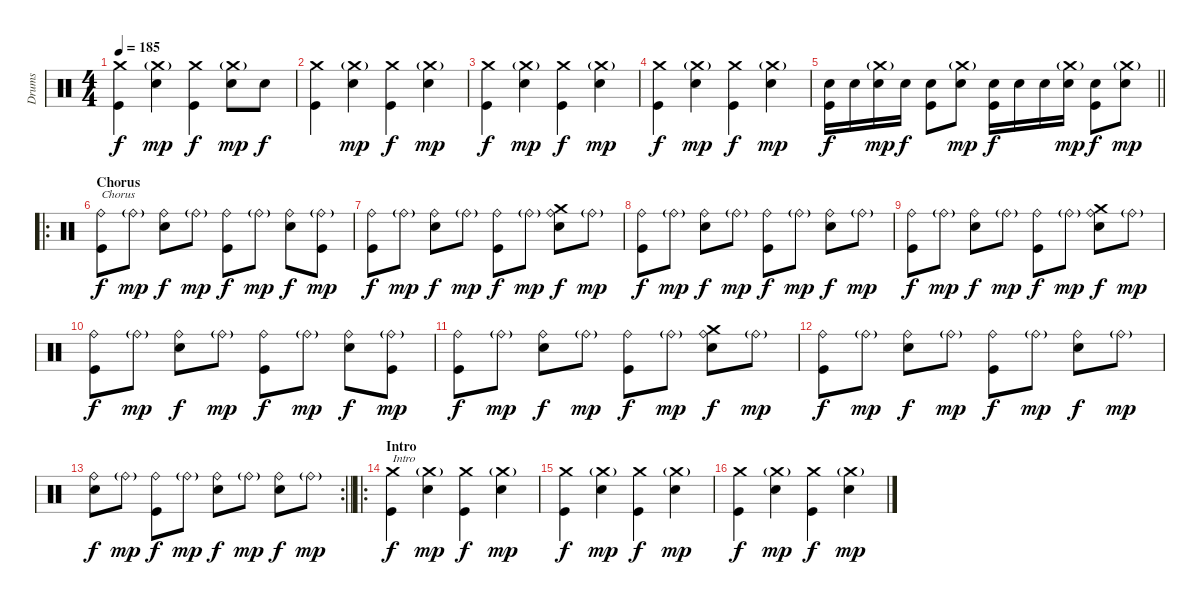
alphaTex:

\track ("Drums" "Drums") {instrument percussion}
\staff {score}
\articulation defaults
\ts (4 4)
\tempo 185
\clef neutral
\ks c
("Crash medium (hit)" "Kick (hit)").4{dy f} ("Crash medium (hit)"{g} "Snare (hit) 2").4{dy mp} ("Crash medium (hit)" "Kick (hit)").4{dy f} ("Crash medium (hit)"{g} "Electric Snare (hit)").8{dy mp} "Snare (hit) 2".8{dy f} |
("Crash medium (hit)" "Kick (hit)").4 ("Crash medium (hit)"{g} "Snare (hit) 2").4{dy mp} ("Crash medium (hit)" "Kick (hit)").4{dy f} ("Crash medium (hit)"{g} "Snare (hit) 2").4{dy mp} |
("Crash medium (hit)" "Kick (hit)").4{dy f} ("Crash medium (hit)"{g} "Snare (hit) 2").4{dy mp} ("Crash medium (hit)" "Kick (hit)").4{dy f} ("Crash medium (hit)"{g} "Snare (hit) 2").4{dy mp} |
("Crash medium (hit)" "Kick (hit)").4{dy f} ("Crash medium (hit)"{g} "Snare (hit) 2").4{dy mp} ("Crash medium (hit)" "Kick (hit)").4{dy f} ("Crash medium (hit)"{g} "Snare (hit) 2").4{dy mp} |
\barLineRight lightlight
("Snare (hit) 2" "Kick (hit)").16{dy f} "Snare (hit) 2".16 ("Crash medium (hit)"{g} "Snare (hit) 2").16{dy mp} "Snare (hit) 2".16{dy f} ("Snare (hit) 2" "Kick (hit)").8 ("Crash medium (hit)"{g} "Snare (hit) 2").8{dy mp} ("Snare (hit) 2" "Kick (hit)").16{dy f} "Snare (hit) 2".16 "Snare (hit) 2".16 ("Crash medium (hit)"{g} "Snare (hit) 2").16{dy mp} ("Snare (hit) 2" "Kick (hit)").8{dy f} ("Crash medium (hit)"{g} "Snare (hit) 2").8{dy mp} |
\ro
\section ("" "Chorus")
("Ride (bell)" "Kick (hit)").8{txt "Chorus" dy f} "Ride (bell)"{g}.8{dy mp} ("Ride (bell)" "Snare (hit) 2").8{dy f} "Ride (bell)"{g}.8{dy mp} ("Ride (bell)" "Kick (hit)").8{dy f} "Ride (bell)"{g}.8{dy mp} ("Ride (bell)" "Snare (hit) 2").8{dy f} ("Ride (bell)"{g} "Kick (hit)").8{dy mp} |
("Ride (bell)" "Kick (hit)").8{dy f} "Ride (bell)"{g}.8{dy mp} ("Ride (bell)" "Snare (hit) 2").8{dy f} "Ride (bell)"{g}.8{dy mp} ("Ride (bell)" "Kick (hit)").8{dy f} "Ride (bell)"{g}.8{dy mp} ("Crash medium (hit)" "Ride (bell)" "Snare (hit) 2").8{dy f} "Ride (bell)"{g}.8{dy mp} |
("Ride (bell)" "Kick (hit)").8{dy f} "Ride (bell)"{g}.8{dy mp} ("Ride (bell)" "Snare (hit) 2").8{dy f} "Ride (bell)"{g}.8{dy mp} ("Ride (bell)" "Kick (hit)").8{dy f} "Ride (bell)"{g}.8{dy mp} ("Ride (bell)" "Snare (hit) 2").8{dy f} "Ride (bell)"{g}.8{dy mp} |
("Ride (bell)" "Kick (hit)").8{dy f} "Ride (bell)"{g}.8{dy mp} ("Ride (bell)" "Snare (hit) 2").8{dy f} "Ride (bell)"{g}.8{dy mp} ("Ride (bell)" "Kick (hit)").8{dy f} "Ride (bell)"{g}.8{dy mp} ("Crash medium (hit)" "Ride (bell)" "Snare (hit) 2").8{dy f} "Ride (bell)"{g}.8{dy mp} |
("Ride (bell)" "Kick (hit)").8{dy f} "Ride (bell)"{g}.8{dy mp} ("Ride (bell)" "Snare (hit) 2").8{dy f} "Ride (bell)"{g}.8{dy mp} ("Ride (bell)" "Kick (hit)").8{dy f} "Ride (bell)"{g}.8{dy mp} ("Ride (bell)" "Snare (hit) 2").8{dy f} ("Ride (bell)"{g} "Kick (hit)").8{dy mp} |
("Ride (bell)" "Kick (hit)").8{dy f} "Ride (bell)"{g}.8{dy mp} ("Ride (bell)" "Snare (hit) 2").8{dy f} "Ride (bell)"{g}.8{dy mp} ("Ride (bell)" "Kick (hit)").8{dy f} "Ride (bell)"{g}.8{dy mp} ("Crash medium (hit)" "Ride (bell)" "Snare (hit) 2").8{dy f} "Ride (bell)"{g}.8{dy mp} |
("Ride (bell)" "Kick (hit)").8{dy f} "Ride (bell)"{g}.8{dy mp} ("Ride (bell)" "Snare (hit) 2").8{dy f} "Ride (bell)"{g}.8{dy mp} ("Ride (bell)" "Kick (hit)").8{dy f} "Ride (bell)"{g}.8{dy mp} ("Ride (bell)" "Snare (hit) 2").8{dy f} "Ride (bell)"{g}.8{dy mp} |
\rc 2
\barLineRight lightlight
("Ride (bell)" "Snare (hit) 2").8{dy f} "Ride (bell)"{g}.8{dy mp} ("Ride (bell)" "Kick (hit)").8{dy f} "Ride (bell)"{g}.8{dy mp} ("Ride (bell)" "Snare (hit) 2").8{dy f} "Ride (bell)"{g}.8{dy mp} ("Ride (bell)" "Snare (hit) 2").8{dy f} "Ride (bell)"{g}.8{dy mp} |
\ro
\section ("" "Intro")
("Crash medium (hit)" "Kick (hit)").4{txt "Intro" dy f} ("Crash medium (hit)"{g} "Snare (hit) 2").4{dy mp} ("Crash medium (hit)" "Kick (hit)").4{dy f} ("Crash medium (hit)"{g} "Snare (hit) 2").4{dy mp} |
("Crash medium (hit)" "Kick (hit)").4{dy f} ("Crash medium (hit)"{g} "Snare (hit) 2").4{dy mp} ("Crash medium (hit)" "Kick (hit)").4{dy f} ("Crash medium (hit)"{g} "Snare (hit) 2").4{dy mp} |
("Crash medium (hit)" "Kick (hit)").4{dy f} ("Crash medium (hit)"{g} "Snare (hit) 2").4{dy mp} ("Crash medium (hit)" "Kick (hit)").4{dy f} ("Crash medium (hit)"{g} "Snare (hit) 2").4{dy mp}
